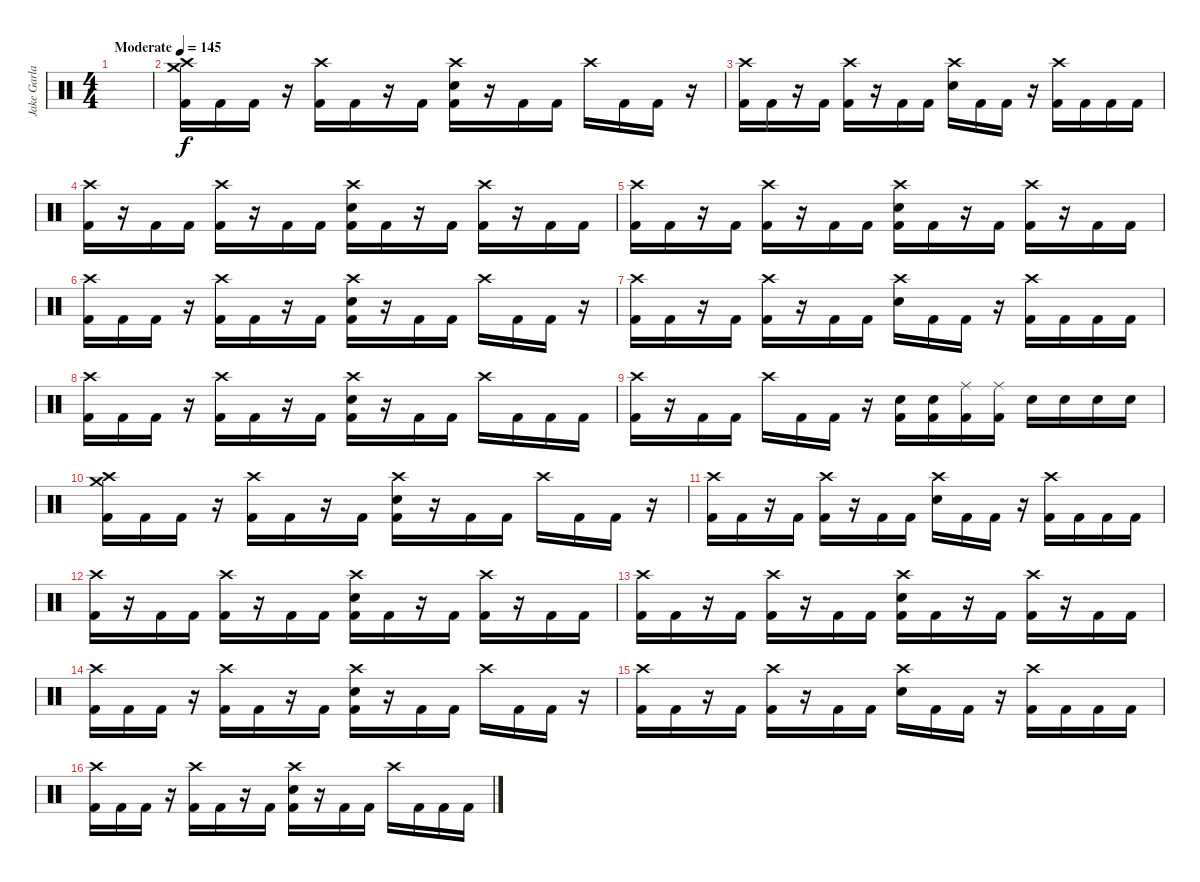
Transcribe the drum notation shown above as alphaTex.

\track ("Jake Garland" "Jake Garla") {instrument percussion}
\staff {score}
\articulation defaults
\ts (4 4)
\tempo (145 "Moderate")
\clef neutral
\ks c
|
("Crash high (hit)" "Crash medium (hit)" "Kick (hit) 2").16 "Kick (hit) 2".16 "Kick (hit) 2".16 r.16 ("Crash high (hit)" "Kick (hit) 2").16 "Kick (hit) 2".16 r.16 "Kick (hit) 2".16 ("Crash high (hit)" "Electric Snare (hit)" "Kick (hit) 2").16 r.16 "Kick (hit) 2".16 "Kick (hit) 2".16 "Crash high (hit)".16 "Kick (hit) 2".16 "Kick (hit) 2".16 r.16 |
("Crash high (hit)" "Kick (hit) 2").16 "Kick (hit) 2".16 r.16 "Kick (hit) 2".16 ("Crash high (hit)" "Kick (hit) 2").16 r.16 "Kick (hit) 2".16 "Kick (hit) 2".16 ("Crash high (hit)" "Electric Snare (hit)").16 "Kick (hit) 2".16 "Kick (hit) 2".16 r.16 ("Crash high (hit)" "Kick (hit) 2").16 "Kick (hit) 2".16 "Kick (hit) 2".16 "Kick (hit) 2".16 |
("Crash high (hit)" "Kick (hit) 2").16 r.16 "Kick (hit) 2".16 "Kick (hit) 2".16 ("Crash high (hit)" "Kick (hit) 2").16 r.16 "Kick (hit) 2".16 "Kick (hit) 2".16 ("Crash high (hit)" "Electric Snare (hit)" "Kick (hit) 2").16 "Kick (hit) 2".16 r.16 "Kick (hit) 2".16 ("Crash high (hit)" "Kick (hit) 2").16 r.16 "Kick (hit) 2".16 "Kick (hit) 2".16 |
("Crash high (hit)" "Kick (hit) 2").16 "Kick (hit) 2".16 r.16 "Kick (hit) 2".16 ("Crash high (hit)" "Kick (hit) 2").16 r.16 "Kick (hit) 2".16 "Kick (hit) 2".16 ("Crash high (hit)" "Electric Snare (hit)" "Kick (hit) 2").16 "Kick (hit) 2".16 r.16 "Kick (hit) 2".16 ("Crash high (hit)" "Kick (hit) 2").16 r.16 "Kick (hit) 2".16 "Kick (hit) 2".16 |
("Crash high (hit)" "Kick (hit) 2").16 "Kick (hit) 2".16 "Kick (hit) 2".16 r.16 ("Crash high (hit)" "Kick (hit) 2").16 "Kick (hit) 2".16 r.16 "Kick (hit) 2".16 ("Crash high (hit)" "Electric Snare (hit)" "Kick (hit) 2").16 r.16 "Kick (hit) 2".16 "Kick (hit) 2".16 "Crash high (hit)".16 "Kick (hit) 2".16 "Kick (hit) 2".16 r.16 |
("Crash high (hit)" "Kick (hit) 2").16 "Kick (hit) 2".16 r.16 "Kick (hit) 2".16 ("Crash high (hit)" "Kick (hit) 2").16 r.16 "Kick (hit) 2".16 "Kick (hit) 2".16 ("Crash high (hit)" "Electric Snare (hit)").16 "Kick (hit) 2".16 "Kick (hit) 2".16 r.16 ("Crash high (hit)" "Kick (hit) 2").16 "Kick (hit) 2".16 "Kick (hit) 2".16 "Kick (hit) 2".16 |
("Crash high (hit)" "Kick (hit) 2").16 "Kick (hit) 2".16 "Kick (hit) 2".16 r.16 ("Crash high (hit)" "Kick (hit) 2").16 "Kick (hit) 2".16 r.16 "Kick (hit) 2".16 ("Crash high (hit)" "Electric Snare (hit)" "Kick (hit) 2").16 r.16 "Kick (hit) 2".16 "Kick (hit) 2".16 "Crash high (hit)".16 "Kick (hit) 2".16 "Kick (hit) 2".16 "Kick (hit) 2".16 |
("Crash high (hit)" "Kick (hit) 2").16 r.16 "Kick (hit) 2".16 "Kick (hit) 2".16 "Crash high (hit)".16 "Kick (hit) 2".16 "Kick (hit) 2".16 r.16 ("Electric Snare (hit)" "Kick (hit) 2").16 ("Electric Snare (hit)" "Kick (hit) 2").16 ("Ride (middle)" "Kick (hit) 2").16 ("Ride (middle)" "Kick (hit) 2").16 "Electric Snare (hit)".16 "Electric Snare (hit)".16 "Electric Snare (hit)".16 "Electric Snare (hit)".16 |
("Crash high (hit)" "Crash medium (hit)" "Kick (hit) 2").16 "Kick (hit) 2".16 "Kick (hit) 2".16 r.16 ("Crash high (hit)" "Kick (hit) 2").16 "Kick (hit) 2".16 r.16 "Kick (hit) 2".16 ("Crash high (hit)" "Electric Snare (hit)" "Kick (hit) 2").16 r.16 "Kick (hit) 2".16 "Kick (hit) 2".16 "Crash high (hit)".16 "Kick (hit) 2".16 "Kick (hit) 2".16 r.16 |
("Crash high (hit)" "Kick (hit) 2").16 "Kick (hit) 2".16 r.16 "Kick (hit) 2".16 ("Crash high (hit)" "Kick (hit) 2").16 r.16 "Kick (hit) 2".16 "Kick (hit) 2".16 ("Crash high (hit)" "Electric Snare (hit)").16 "Kick (hit) 2".16 "Kick (hit) 2".16 r.16 ("Crash high (hit)" "Kick (hit) 2").16 "Kick (hit) 2".16 "Kick (hit) 2".16 "Kick (hit) 2".16 |
("Crash high (hit)" "Kick (hit) 2").16 r.16 "Kick (hit) 2".16 "Kick (hit) 2".16 ("Crash high (hit)" "Kick (hit) 2").16 r.16 "Kick (hit) 2".16 "Kick (hit) 2".16 ("Crash high (hit)" "Electric Snare (hit)" "Kick (hit) 2").16 "Kick (hit) 2".16 r.16 "Kick (hit) 2".16 ("Crash high (hit)" "Kick (hit) 2").16 r.16 "Kick (hit) 2".16 "Kick (hit) 2".16 |
("Crash high (hit)" "Kick (hit) 2").16 "Kick (hit) 2".16 r.16 "Kick (hit) 2".16 ("Crash high (hit)" "Kick (hit) 2").16 r.16 "Kick (hit) 2".16 "Kick (hit) 2".16 ("Crash high (hit)" "Electric Snare (hit)" "Kick (hit) 2").16 "Kick (hit) 2".16 r.16 "Kick (hit) 2".16 ("Crash high (hit)" "Kick (hit) 2").16 r.16 "Kick (hit) 2".16 "Kick (hit) 2".16 |
("Crash high (hit)" "Kick (hit) 2").16 "Kick (hit) 2".16 "Kick (hit) 2".16 r.16 ("Crash high (hit)" "Kick (hit) 2").16 "Kick (hit) 2".16 r.16 "Kick (hit) 2".16 ("Crash high (hit)" "Electric Snare (hit)" "Kick (hit) 2").16 r.16 "Kick (hit) 2".16 "Kick (hit) 2".16 "Crash high (hit)".16 "Kick (hit) 2".16 "Kick (hit) 2".16 r.16 |
("Crash high (hit)" "Kick (hit) 2").16 "Kick (hit) 2".16 r.16 "Kick (hit) 2".16 ("Crash high (hit)" "Kick (hit) 2").16 r.16 "Kick (hit) 2".16 "Kick (hit) 2".16 ("Crash high (hit)" "Electric Snare (hit)").16 "Kick (hit) 2".16 "Kick (hit) 2".16 r.16 ("Crash high (hit)" "Kick (hit) 2").16 "Kick (hit) 2".16 "Kick (hit) 2".16 "Kick (hit) 2".16 |
("Crash high (hit)" "Kick (hit) 2").16 "Kick (hit) 2".16 "Kick (hit) 2".16 r.16 ("Crash high (hit)" "Kick (hit) 2").16 "Kick (hit) 2".16 r.16 "Kick (hit) 2".16 ("Crash high (hit)" "Electric Snare (hit)" "Kick (hit) 2").16 r.16 "Kick (hit) 2".16 "Kick (hit) 2".16 "Crash high (hit)".16 "Kick (hit) 2".16 "Kick (hit) 2".16 "Kick (hit) 2".16
